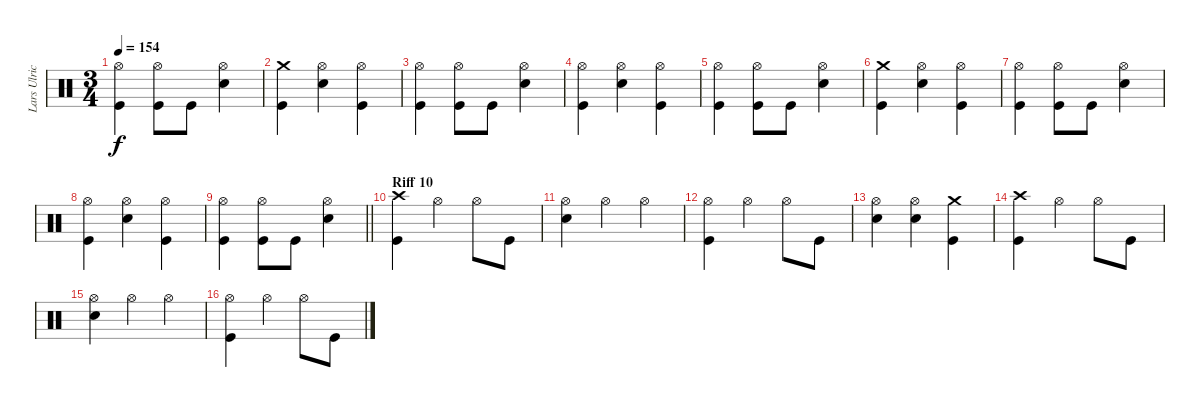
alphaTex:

\track ("Lars Ulrich" "Lars Ulric") {instrument percussion}
\staff {score}
\articulation defaults
\ts (3 4)
\tempo 154
\clef neutral
\ks c
("Hi-Hat (open)" "Kick (hit)").4{dy f} ("Hi-Hat (open)" "Kick (hit)").8 "Kick (hit)".8 ("Hi-Hat (open)" "Snare (hit) 2").4 |
("Crash medium (hit)" "Kick (hit)").4 ("Hi-Hat (open)" "Snare (hit) 2").4 ("Hi-Hat (open)" "Kick (hit)").4 |
("Hi-Hat (open)" "Kick (hit)").4 ("Hi-Hat (open)" "Kick (hit)").8 "Kick (hit)".8 ("Hi-Hat (open)" "Snare (hit) 2").4 |
("Hi-Hat (open)" "Kick (hit)").4 ("Hi-Hat (open)" "Snare (hit) 2").4 ("Hi-Hat (open)" "Kick (hit)").4 |
("Hi-Hat (open)" "Kick (hit)").4 ("Hi-Hat (open)" "Kick (hit)").8 "Kick (hit)".8 ("Hi-Hat (open)" "Snare (hit) 2").4 |
("Crash medium (hit)" "Kick (hit)").4 ("Hi-Hat (open)" "Snare (hit) 2").4 ("Hi-Hat (open)" "Kick (hit)").4 |
("Hi-Hat (open)" "Kick (hit)").4 ("Hi-Hat (open)" "Kick (hit)").8 "Kick (hit)".8 ("Hi-Hat (open)" "Snare (hit) 2").4 |
("Hi-Hat (open)" "Kick (hit)").4 ("Hi-Hat (open)" "Snare (hit) 2").4 ("Hi-Hat (open)" "Kick (hit)").4 |
\barLineRight lightlight
("Hi-Hat (open)" "Kick (hit)").4 ("Hi-Hat (open)" "Kick (hit)").8 "Kick (hit)".8 ("Hi-Hat (open)" "Snare (hit) 2").4 |
\section ("" "Riff 10")
("Crash high (hit)" "Kick (hit)").4 "Hi-Hat (open)".4 "Hi-Hat (open)".8 "Kick (hit)".8 |
("Hi-Hat (open)" "Snare (hit) 2").4 "Hi-Hat (open)".4 "Hi-Hat (open)".4 |
("Hi-Hat (open)" "Kick (hit)").4 "Hi-Hat (open)".4 "Hi-Hat (open)".8 "Kick (hit)".8 |
("Hi-Hat (open)" "Snare (hit) 2").4 ("Hi-Hat (open)" "Snare (hit) 2").4 ("Crash medium (hit)" "Kick (hit)").4 |
("Crash high (hit)" "Kick (hit)").4 "Hi-Hat (open)".4 "Hi-Hat (open)".8 "Kick (hit)".8 |
("Hi-Hat (open)" "Snare (hit) 2").4 "Hi-Hat (open)".4 "Hi-Hat (open)".4 |
("Hi-Hat (open)" "Kick (hit)").4 "Hi-Hat (open)".4 "Hi-Hat (open)".8 "Kick (hit)".8
